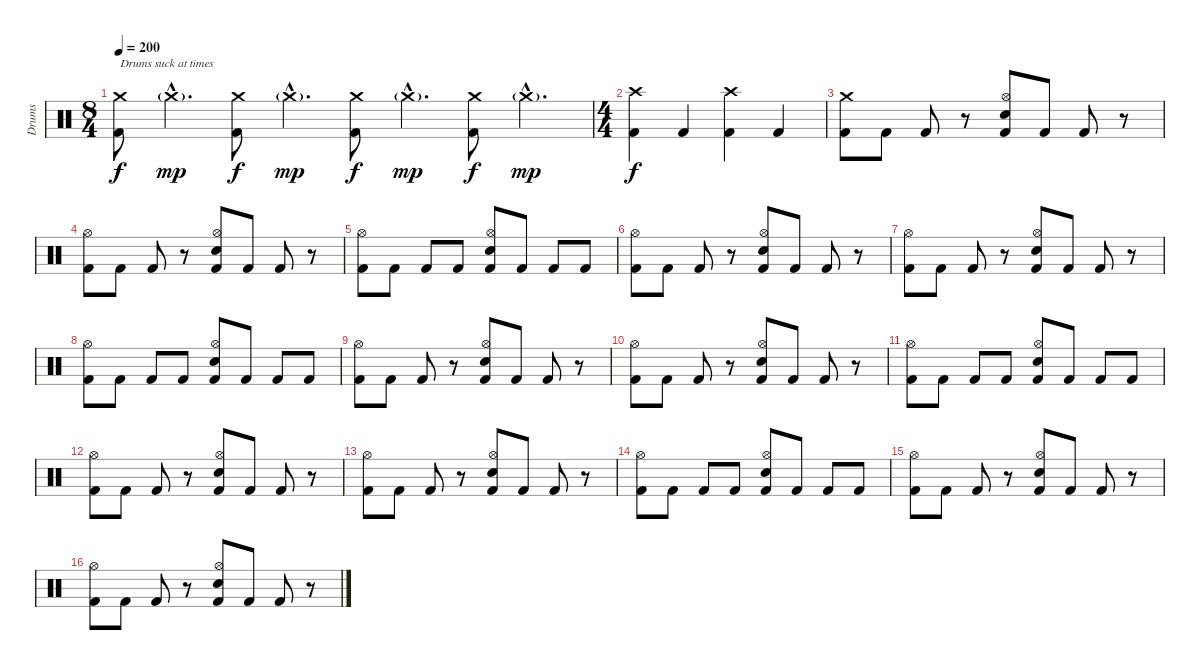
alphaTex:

\track ("Drums" "Drums") {instrument percussion}
\staff {score}
\articulation defaults
\ts (8 4)
\section ("" "")
\tempo 200
\tempo 262
\tempo 200
\clef neutral
\ks c
("Crash medium (hit)" "Kick (hit) 2").8{txt "Drums suck at times" dy f} "Crash medium (hit)"{g hac pm}.4{d dy mp} ("Crash medium (hit)" "Kick (hit) 2").8{dy f} "Crash medium (hit)"{g hac pm}.4{d dy mp} ("Crash medium (hit)" "Kick (hit) 2").8{dy f} "Crash medium (hit)"{g hac pm}.4{d dy mp} ("Crash medium (hit)" "Kick (hit) 2").8{dy f} "Crash medium (hit)"{g hac pm}.4{d dy mp} |
\ts (4 4)
("Crash high (hit)" "Kick (hit) 2").4{dy f} "Kick (hit) 2".4 ("Crash high (hit)" "Kick (hit) 2").4 "Kick (hit) 2".4 |
\section ("" "")
("Crash medium (hit)" "Kick (hit) 2").8 "Kick (hit) 2".8 "Kick (hit) 2".8 r.8 ("Hi-Hat (open)" "Electric Snare (hit)" "Kick (hit) 2").8 "Kick (hit) 2".8 "Kick (hit) 2".8 r.8 |
("Hi-Hat (open)" "Kick (hit) 2").8 "Kick (hit) 2".8 "Kick (hit) 2".8 r.8 ("Hi-Hat (open)" "Electric Snare (hit)" "Kick (hit) 2").8 "Kick (hit) 2".8 "Kick (hit) 2".8 r.8 |
("Hi-Hat (open)" "Kick (hit) 2").8 "Kick (hit) 2".8 "Kick (hit) 2".8 "Kick (hit) 2".8 ("Hi-Hat (open)" "Electric Snare (hit)" "Kick (hit) 2").8 "Kick (hit) 2".8 "Kick (hit) 2".8 "Kick (hit) 2".8 |
("Hi-Hat (open)" "Kick (hit) 2").8 "Kick (hit) 2".8 "Kick (hit) 2".8 r.8 ("Hi-Hat (open)" "Electric Snare (hit)" "Kick (hit) 2").8 "Kick (hit) 2".8 "Kick (hit) 2".8 r.8 |
("Hi-Hat (open)" "Kick (hit) 2").8 "Kick (hit) 2".8 "Kick (hit) 2".8 r.8 ("Hi-Hat (open)" "Electric Snare (hit)" "Kick (hit) 2").8 "Kick (hit) 2".8 "Kick (hit) 2".8 r.8 |
("Hi-Hat (open)" "Kick (hit) 2").8 "Kick (hit) 2".8 "Kick (hit) 2".8 "Kick (hit) 2".8 ("Hi-Hat (open)" "Electric Snare (hit)" "Kick (hit) 2").8 "Kick (hit) 2".8 "Kick (hit) 2".8 "Kick (hit) 2".8 |
("Hi-Hat (open)" "Kick (hit) 2").8 "Kick (hit) 2".8 "Kick (hit) 2".8 r.8 ("Hi-Hat (open)" "Electric Snare (hit)" "Kick (hit) 2").8 "Kick (hit) 2".8 "Kick (hit) 2".8 r.8 |
("Hi-Hat (open)" "Kick (hit) 2").8 "Kick (hit) 2".8 "Kick (hit) 2".8 r.8 ("Hi-Hat (open)" "Electric Snare (hit)" "Kick (hit) 2").8 "Kick (hit) 2".8 "Kick (hit) 2".8 r.8 |
("Hi-Hat (open)" "Kick (hit) 2").8 "Kick (hit) 2".8 "Kick (hit) 2".8 "Kick (hit) 2".8 ("Hi-Hat (open)" "Electric Snare (hit)" "Kick (hit) 2").8 "Kick (hit) 2".8 "Kick (hit) 2".8 "Kick (hit) 2".8 |
("Hi-Hat (open)" "Kick (hit) 2").8 "Kick (hit) 2".8 "Kick (hit) 2".8 r.8 ("Hi-Hat (open)" "Electric Snare (hit)" "Kick (hit) 2").8 "Kick (hit) 2".8 "Kick (hit) 2".8 r.8 |
("Hi-Hat (open)" "Kick (hit) 2").8 "Kick (hit) 2".8 "Kick (hit) 2".8 r.8 ("Hi-Hat (open)" "Electric Snare (hit)" "Kick (hit) 2").8 "Kick (hit) 2".8 "Kick (hit) 2".8 r.8 |
("Hi-Hat (open)" "Kick (hit) 2").8 "Kick (hit) 2".8 "Kick (hit) 2".8 "Kick (hit) 2".8 ("Hi-Hat (open)" "Electric Snare (hit)" "Kick (hit) 2").8 "Kick (hit) 2".8 "Kick (hit) 2".8 "Kick (hit) 2".8 |
("Hi-Hat (open)" "Kick (hit) 2").8 "Kick (hit) 2".8 "Kick (hit) 2".8 r.8 ("Hi-Hat (open)" "Electric Snare (hit)" "Kick (hit) 2").8 "Kick (hit) 2".8 "Kick (hit) 2".8 r.8 |
("Hi-Hat (open)" "Kick (hit) 2").8 "Kick (hit) 2".8 "Kick (hit) 2".8 r.8 ("Hi-Hat (open)" "Electric Snare (hit)" "Kick (hit) 2").8 "Kick (hit) 2".8 "Kick (hit) 2".8 r.8
